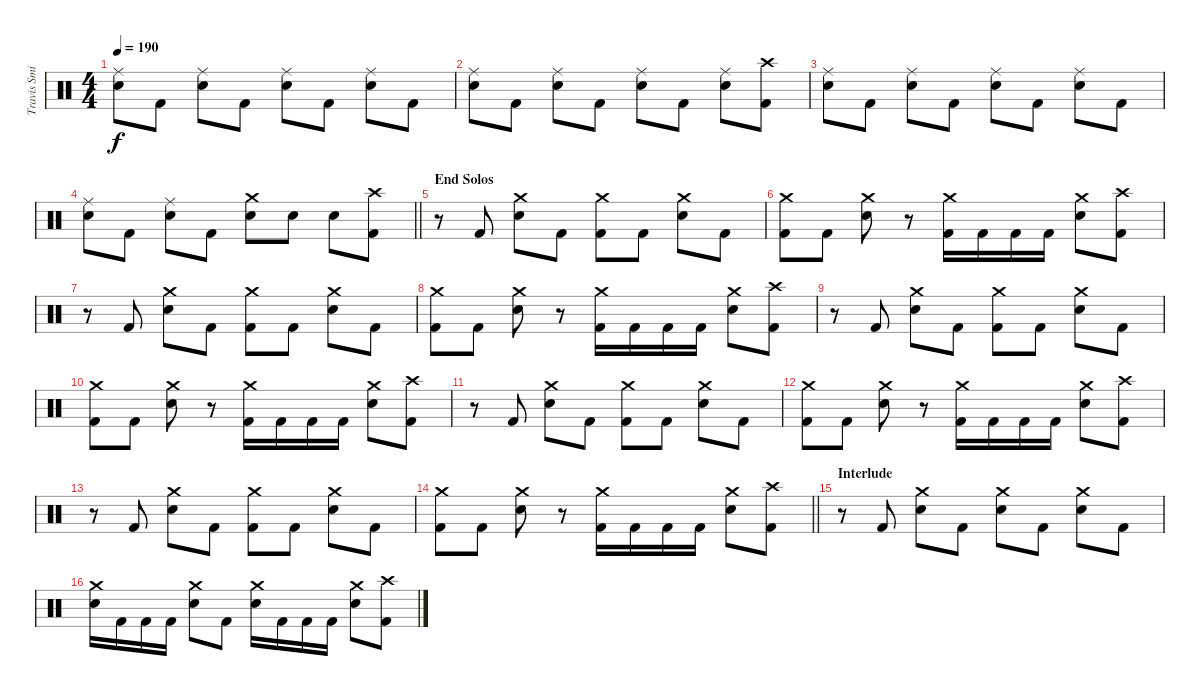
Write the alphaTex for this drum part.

\track ("Travis Smith" "Travis Smi") {instrument percussion}
\staff {score}
\articulation defaults
\ts (4 4)
\tempo 190
\clef neutral
\ks c
("Ride (middle)" "Electric Snare (hit)").8{dy f} "Kick (hit) 2".8 ("Ride (middle)" "Electric Snare (hit)").8 "Kick (hit) 2".8 ("Ride (middle)" "Electric Snare (hit)").8 "Kick (hit) 2".8 ("Ride (middle)" "Electric Snare (hit)").8 "Kick (hit) 2".8 |
("Ride (middle)" "Electric Snare (hit)").8 "Kick (hit) 2".8 ("Ride (middle)" "Electric Snare (hit)").8 "Kick (hit) 2".8 ("Ride (middle)" "Electric Snare (hit)").8 "Kick (hit) 2".8 ("Ride (middle)" "Electric Snare (hit)").8 ("Crash high (hit)" "Kick (hit) 2").8 |
("Ride (middle)" "Electric Snare (hit)").8 "Kick (hit) 2".8 ("Ride (middle)" "Electric Snare (hit)").8 "Kick (hit) 2".8 ("Ride (middle)" "Electric Snare (hit)").8 "Kick (hit) 2".8 ("Ride (middle)" "Electric Snare (hit)").8 "Kick (hit) 2".8 |
\barLineRight lightlight
("Ride (middle)" "Electric Snare (hit)").8 "Kick (hit) 2".8 ("Ride (middle)" "Electric Snare (hit)").8 "Kick (hit) 2".8 ("Crash medium (hit)" "Electric Snare (hit)").8 "Electric Snare (hit)".8 "Electric Snare (hit)".8 ("Crash high (hit)" "Kick (hit) 2").8 |
\section ("" "End Solos")
r.8 "Kick (hit) 2".8 ("Crash medium (hit)" "Electric Snare (hit)").8 "Kick (hit) 2".8 ("Crash medium (hit)" "Kick (hit) 2").8 "Kick (hit) 2".8 ("Crash medium (hit)" "Electric Snare (hit)").8 "Kick (hit) 2".8 |
("Crash medium (hit)" "Kick (hit) 2").8 "Kick (hit) 2".8 ("Crash medium (hit)" "Electric Snare (hit)").8 r.8 ("Crash medium (hit)" "Kick (hit) 2").16 "Kick (hit) 2".16 "Kick (hit) 2".16 "Kick (hit) 2".16 ("Crash medium (hit)" "Electric Snare (hit)").8 ("Crash high (hit)" "Kick (hit) 2").8 |
r.8 "Kick (hit) 2".8 ("Crash medium (hit)" "Electric Snare (hit)").8 "Kick (hit) 2".8 ("Crash medium (hit)" "Kick (hit) 2").8 "Kick (hit) 2".8 ("Crash medium (hit)" "Electric Snare (hit)").8 "Kick (hit) 2".8 |
("Crash medium (hit)" "Kick (hit) 2").8 "Kick (hit) 2".8 ("Crash medium (hit)" "Electric Snare (hit)").8 r.8 ("Crash medium (hit)" "Kick (hit) 2").16 "Kick (hit) 2".16 "Kick (hit) 2".16 "Kick (hit) 2".16 ("Crash medium (hit)" "Electric Snare (hit)").8 ("Crash high (hit)" "Kick (hit) 2").8 |
r.8 "Kick (hit) 2".8 ("Crash medium (hit)" "Electric Snare (hit)").8 "Kick (hit) 2".8 ("Crash medium (hit)" "Kick (hit) 2").8 "Kick (hit) 2".8 ("Crash medium (hit)" "Electric Snare (hit)").8 "Kick (hit) 2".8 |
("Crash medium (hit)" "Kick (hit) 2").8 "Kick (hit) 2".8 ("Crash medium (hit)" "Electric Snare (hit)").8 r.8 ("Crash medium (hit)" "Kick (hit) 2").16 "Kick (hit) 2".16 "Kick (hit) 2".16 "Kick (hit) 2".16 ("Crash medium (hit)" "Electric Snare (hit)").8 ("Crash high (hit)" "Kick (hit) 2").8 |
r.8 "Kick (hit) 2".8 ("Crash medium (hit)" "Electric Snare (hit)").8 "Kick (hit) 2".8 ("Crash medium (hit)" "Kick (hit) 2").8 "Kick (hit) 2".8 ("Crash medium (hit)" "Electric Snare (hit)").8 "Kick (hit) 2".8 |
("Crash medium (hit)" "Kick (hit) 2").8 "Kick (hit) 2".8 ("Crash medium (hit)" "Electric Snare (hit)").8 r.8 ("Crash medium (hit)" "Kick (hit) 2").16 "Kick (hit) 2".16 "Kick (hit) 2".16 "Kick (hit) 2".16 ("Crash medium (hit)" "Electric Snare (hit)").8 ("Crash high (hit)" "Kick (hit) 2").8 |
r.8 "Kick (hit) 2".8 ("Crash medium (hit)" "Electric Snare (hit)").8 "Kick (hit) 2".8 ("Crash medium (hit)" "Kick (hit) 2").8 "Kick (hit) 2".8 ("Crash medium (hit)" "Electric Snare (hit)").8 "Kick (hit) 2".8 |
\barLineRight lightlight
("Crash medium (hit)" "Kick (hit) 2").8 "Kick (hit) 2".8 ("Crash medium (hit)" "Electric Snare (hit)").8 r.8 ("Crash medium (hit)" "Kick (hit) 2").16 "Kick (hit) 2".16 "Kick (hit) 2".16 "Kick (hit) 2".16 ("Crash medium (hit)" "Electric Snare (hit)").8 ("Crash high (hit)" "Kick (hit) 2").8 |
\section ("" "Interlude")
r.8 "Kick (hit) 2".8 ("Crash medium (hit)" "Electric Snare (hit)").8 "Kick (hit) 2".8 ("Crash medium (hit)" "Electric Snare (hit)").8 "Kick (hit) 2".8 ("Crash medium (hit)" "Electric Snare (hit)").8 "Kick (hit) 2".8 |
("Crash medium (hit)" "Electric Snare (hit)").16 "Kick (hit) 2".16 "Kick (hit) 2".16 "Kick (hit) 2".16 ("Crash medium (hit)" "Electric Snare (hit)").8 "Kick (hit) 2".8 ("Crash medium (hit)" "Electric Snare (hit)").16 "Kick (hit) 2".16 "Kick (hit) 2".16 "Kick (hit) 2".16 ("Crash medium (hit)" "Electric Snare (hit)").8 ("Crash high (hit)" "Kick (hit) 2").8
